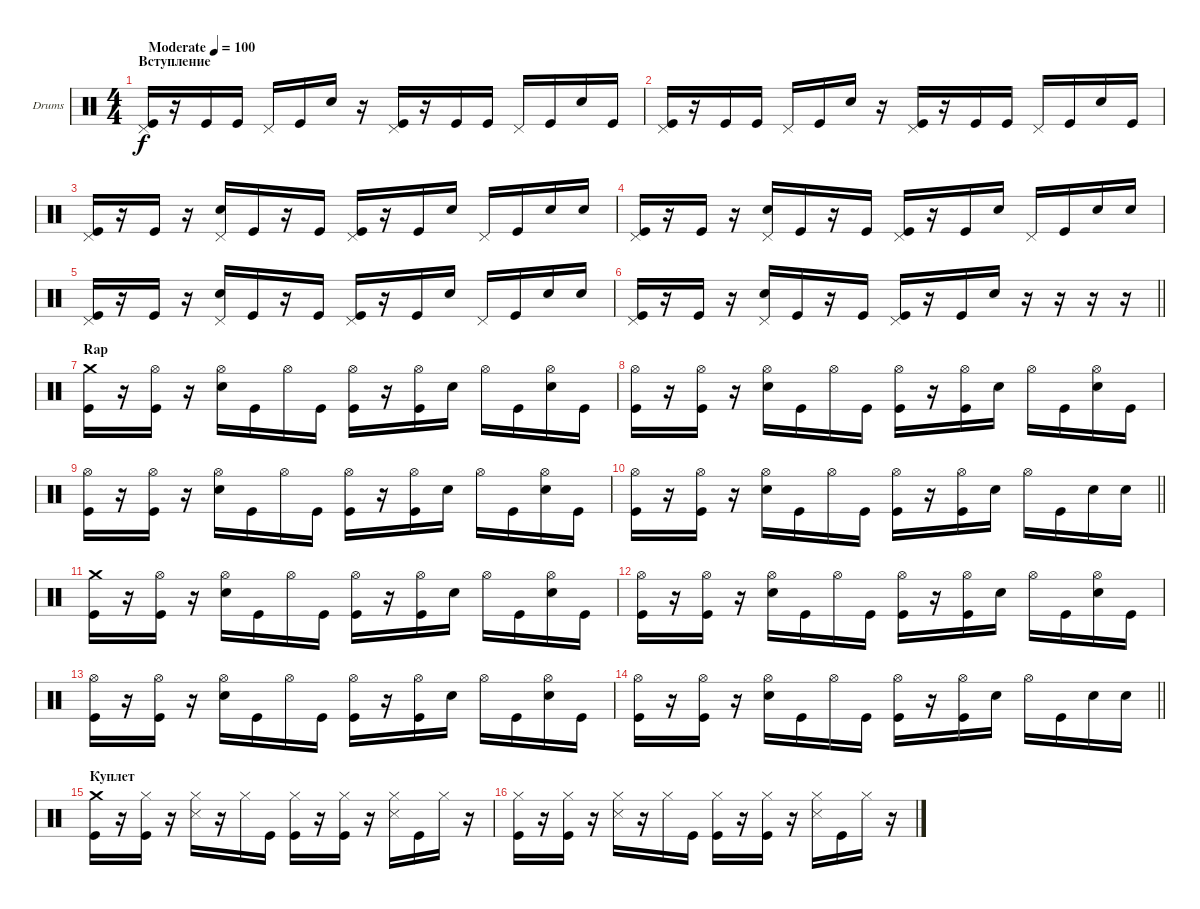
\bracketExtendMode groupsimilarinstruments
\firstSystemTrackNameOrientation horizontal
\otherSystemsTrackNameOrientation horizontal
\track ("Drumkit" "Drums") {instrument percussion}
\staff {score}
\articulation defaults
\ts (4 4)
\beaming (8 2 2 2 2)
\section ("" "Вступление")
\tempo (100 "Moderate")
\clef neutral
\ks c
("Pedal Hi-Hat (hit)" "Kick (hit)").16{dy f} r.16 "Kick (hit)".16 "Kick (hit)".16 "Pedal Hi-Hat (hit)".16 "Kick (hit)".16 "Snare (hit) 2".16 r.16 ("Pedal Hi-Hat (hit)" "Kick (hit)").16 r.16 "Kick (hit)".16 "Kick (hit)".16 "Pedal Hi-Hat (hit)".16 "Kick (hit)".16 "Snare (hit) 2".16 "Kick (hit)".16 |
("Pedal Hi-Hat (hit)" "Kick (hit)").16 r.16 "Kick (hit)".16 "Kick (hit)".16 "Pedal Hi-Hat (hit)".16 "Kick (hit)".16 "Snare (hit) 2".16 r.16 ("Pedal Hi-Hat (hit)" "Kick (hit)").16 r.16 "Kick (hit)".16 "Kick (hit)".16 "Pedal Hi-Hat (hit)".16 "Kick (hit)".16 "Snare (hit) 2".16 "Kick (hit)".16 |
("Pedal Hi-Hat (hit)" "Kick (hit)").16 r.16 "Kick (hit)".16 r.16 ("Pedal Hi-Hat (hit)" "Snare (hit) 2").16 "Kick (hit)".16 r.16 "Kick (hit)".16 ("Pedal Hi-Hat (hit)" "Kick (hit)").16 r.16 "Kick (hit)".16 "Snare (hit) 2".16 "Pedal Hi-Hat (hit)".16 "Kick (hit)".16 "Snare (hit) 2".16 "Snare (hit) 2".16 |
("Pedal Hi-Hat (hit)" "Kick (hit)").16 r.16 "Kick (hit)".16 r.16 ("Pedal Hi-Hat (hit)" "Snare (hit) 2").16 "Kick (hit)".16 r.16 "Kick (hit)".16 ("Pedal Hi-Hat (hit)" "Kick (hit)").16 r.16 "Kick (hit)".16 "Snare (hit) 2".16 "Pedal Hi-Hat (hit)".16 "Kick (hit)".16 "Snare (hit) 2".16 "Snare (hit) 2".16 |
("Pedal Hi-Hat (hit)" "Kick (hit)").16 r.16 "Kick (hit)".16 r.16 ("Pedal Hi-Hat (hit)" "Snare (hit) 2").16 "Kick (hit)".16 r.16 "Kick (hit)".16 ("Pedal Hi-Hat (hit)" "Kick (hit)").16 r.16 "Kick (hit)".16 "Snare (hit) 2".16 "Pedal Hi-Hat (hit)".16 "Kick (hit)".16 "Snare (hit) 2".16 "Snare (hit) 2".16 |
\barLineRight lightlight
("Pedal Hi-Hat (hit)" "Kick (hit)").16 r.16 "Kick (hit)".16 r.16 ("Pedal Hi-Hat (hit)" "Snare (hit) 2").16 "Kick (hit)".16 r.16 "Kick (hit)".16 ("Pedal Hi-Hat (hit)" "Kick (hit)").16 r.16 "Kick (hit)".16 "Snare (hit) 2".16 r.16 r.16 r.16 r.16 |
\section ("" "Rap")
("Crash medium (hit)" "Kick (hit)").16 r.16 ("Hi-Hat (open)" "Kick (hit)").16 r.16 ("Hi-Hat (open)" "Snare (hit) 2").16 "Kick (hit)".16 "Hi-Hat (open)".16 "Kick (hit)".16 ("Hi-Hat (open)" "Kick (hit)").16 r.16 ("Hi-Hat (open)" "Kick (hit)").16 "Snare (hit) 2".16 "Hi-Hat (open)".16 "Kick (hit)".16 ("Hi-Hat (open)" "Snare (hit) 2").16 "Kick (hit)".16 |
("Hi-Hat (open)" "Kick (hit)").16 r.16 ("Hi-Hat (open)" "Kick (hit)").16 r.16 ("Hi-Hat (open)" "Snare (hit) 2").16 "Kick (hit)".16 "Hi-Hat (open)".16 "Kick (hit)".16 ("Hi-Hat (open)" "Kick (hit)").16 r.16 ("Hi-Hat (open)" "Kick (hit)").16 "Snare (hit) 2".16 "Hi-Hat (open)".16 "Kick (hit)".16 ("Hi-Hat (open)" "Snare (hit) 2").16 "Kick (hit)".16 |
("Hi-Hat (open)" "Kick (hit)").16 r.16 ("Hi-Hat (open)" "Kick (hit)").16 r.16 ("Hi-Hat (open)" "Snare (hit) 2").16 "Kick (hit)".16 "Hi-Hat (open)".16 "Kick (hit)".16 ("Hi-Hat (open)" "Kick (hit)").16 r.16 ("Hi-Hat (open)" "Kick (hit)").16 "Snare (hit) 2".16 "Hi-Hat (open)".16 "Kick (hit)".16 ("Hi-Hat (open)" "Snare (hit) 2").16 "Kick (hit)".16 |
\barLineRight lightlight
("Hi-Hat (open)" "Kick (hit)").16 r.16 ("Hi-Hat (open)" "Kick (hit)").16 r.16 ("Hi-Hat (open)" "Snare (hit) 2").16 "Kick (hit)".16 "Hi-Hat (open)".16 "Kick (hit)".16 ("Hi-Hat (open)" "Kick (hit)").16 r.16 ("Hi-Hat (open)" "Kick (hit)").16 "Snare (hit) 2".16 "Hi-Hat (open)".16 "Kick (hit)".16 "Snare (hit) 2".16 "Snare (hit) 2".16 |
("Crash medium (hit)" "Kick (hit)").16 r.16 ("Hi-Hat (open)" "Kick (hit)").16 r.16 ("Hi-Hat (open)" "Snare (hit) 2").16 "Kick (hit)".16 "Hi-Hat (open)".16 "Kick (hit)".16 ("Hi-Hat (open)" "Kick (hit)").16 r.16 ("Hi-Hat (open)" "Kick (hit)").16 "Snare (hit) 2".16 "Hi-Hat (open)".16 "Kick (hit)".16 ("Hi-Hat (open)" "Snare (hit) 2").16 "Kick (hit)".16 |
("Hi-Hat (open)" "Kick (hit)").16 r.16 ("Hi-Hat (open)" "Kick (hit)").16 r.16 ("Hi-Hat (open)" "Snare (hit) 2").16 "Kick (hit)".16 "Hi-Hat (open)".16 "Kick (hit)".16 ("Hi-Hat (open)" "Kick (hit)").16 r.16 ("Hi-Hat (open)" "Kick (hit)").16 "Snare (hit) 2".16 "Hi-Hat (open)".16 "Kick (hit)".16 ("Hi-Hat (open)" "Snare (hit) 2").16 "Kick (hit)".16 |
("Hi-Hat (open)" "Kick (hit)").16 r.16 ("Hi-Hat (open)" "Kick (hit)").16 r.16 ("Hi-Hat (open)" "Snare (hit) 2").16 "Kick (hit)".16 "Hi-Hat (open)".16 "Kick (hit)".16 ("Hi-Hat (open)" "Kick (hit)").16 r.16 ("Hi-Hat (open)" "Kick (hit)").16 "Snare (hit) 2".16 "Hi-Hat (open)".16 "Kick (hit)".16 ("Hi-Hat (open)" "Snare (hit) 2").16 "Kick (hit)".16 |
\barLineRight lightlight
("Hi-Hat (open)" "Kick (hit)").16 r.16 ("Hi-Hat (open)" "Kick (hit)").16 r.16 ("Hi-Hat (open)" "Snare (hit) 2").16 "Kick (hit)".16 "Hi-Hat (open)".16 "Kick (hit)".16 ("Hi-Hat (open)" "Kick (hit)").16 r.16 ("Hi-Hat (open)" "Kick (hit)").16 "Snare (hit) 2".16 "Hi-Hat (open)".16 "Kick (hit)".16 "Snare (hit) 2".16 "Snare (hit) 2".16 |
\section ("" "Куплет")
("Crash medium (hit)" "Kick (hit)").16 r.16 ("Hi-Hat (closed)" "Kick (hit)").16 r.16 ("Hi-Hat (closed)" "Snare (side stick) 3").16 r.16 "Hi-Hat (closed)".16 "Kick (hit)".16 ("Hi-Hat (closed)" "Kick (hit)").16 r.16 ("Hi-Hat (closed)" "Kick (hit)").16 r.16 ("Hi-Hat (closed)" "Snare (side stick) 3").16 "Kick (hit)".16 "Hi-Hat (closed)".16 r.16 |
("Hi-Hat (closed)" "Kick (hit)").16 r.16 ("Hi-Hat (closed)" "Kick (hit)").16 r.16 ("Hi-Hat (closed)" "Snare (side stick) 3").16 r.16 "Hi-Hat (closed)".16 "Kick (hit)".16 ("Hi-Hat (closed)" "Kick (hit)").16 r.16 ("Hi-Hat (closed)" "Kick (hit)").16 r.16 ("Hi-Hat (closed)" "Snare (side stick) 3").16 "Kick (hit)".16 "Hi-Hat (closed)".16 r.16
